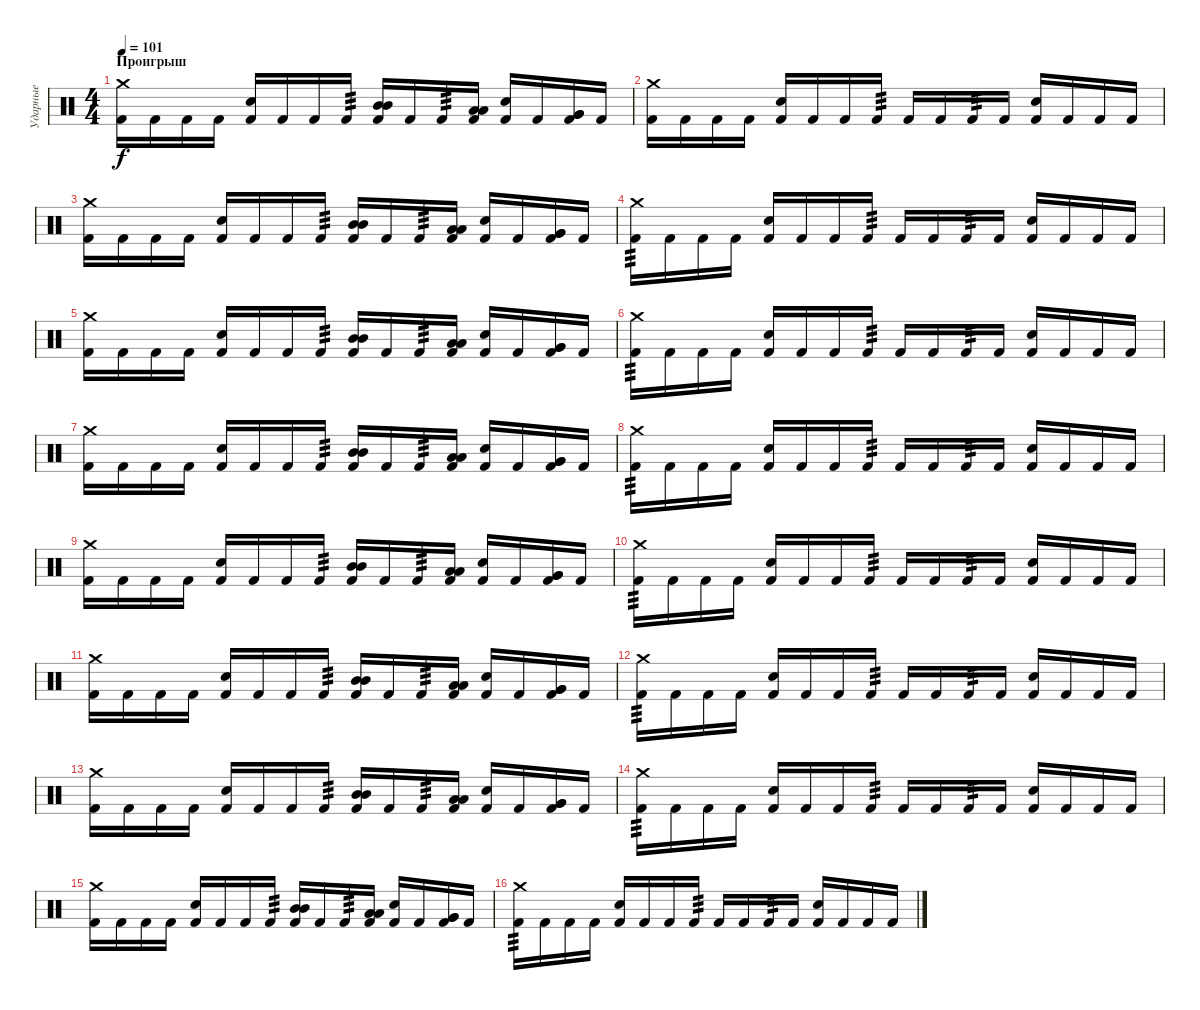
\track ("Ударные" "Ударные") {instrument percussion}
\staff {score}
\articulation defaults
\ts (4 4)
\section ("" "Проигрыш")
\tempo 101
\clef neutral
\ks c
("Crash medium (hit)" "Kick (hit) 2").16{dy f} "Kick (hit) 2".16 "Kick (hit) 2".16 "Kick (hit) 2".16 ("Snare (hit) 2" "Kick (hit) 2").16 "Kick (hit) 2".16 "Kick (hit) 2".16 "Kick (hit) 2".16{tp 3} ("Mid Tom (hit)" "Mid Tom (hit)" "Kick (hit) 2").16 "Kick (hit) 2".16 "Kick (hit) 2".16{tp 3} ("Low Tom (hit)" "Low Tom (hit)" "Kick (hit) 2").16 ("Snare (hit) 2" "Kick (hit) 2").16 "Kick (hit) 2".16 ("Very Low Tom (hit)" "Very Low Tom (hit)" "Kick (hit) 2").16 "Kick (hit) 2".16 |
("Crash medium (hit)" "Kick (hit) 2").16 "Kick (hit) 2".16 "Kick (hit) 2".16 "Kick (hit) 2".16 ("Snare (hit) 2" "Kick (hit) 2").16 "Kick (hit) 2".16 "Kick (hit) 2".16 "Kick (hit) 2".16{tp 3} "Kick (hit) 2".16 "Kick (hit) 2".16 "Kick (hit) 2".16{tp 3} "Kick (hit) 2".16 ("Snare (hit) 2" "Kick (hit) 2").16 "Kick (hit) 2".16 "Kick (hit) 2".16 "Kick (hit) 2".16 |
("Crash medium (hit)" "Kick (hit) 2").16 "Kick (hit) 2".16 "Kick (hit) 2".16 "Kick (hit) 2".16 ("Snare (hit) 2" "Kick (hit) 2").16 "Kick (hit) 2".16 "Kick (hit) 2".16 "Kick (hit) 2".16{tp 3} ("Mid Tom (hit)" "Mid Tom (hit)" "Kick (hit) 2").16 "Kick (hit) 2".16 "Kick (hit) 2".16{tp 3} ("Low Tom (hit)" "Low Tom (hit)" "Kick (hit) 2").16 ("Snare (hit) 2" "Kick (hit) 2").16 "Kick (hit) 2".16 ("Very Low Tom (hit)" "Very Low Tom (hit)" "Kick (hit) 2").16 "Kick (hit) 2".16 |
("Crash medium (hit)" "Kick (hit) 2").16{tp 3} "Kick (hit) 2".16 "Kick (hit) 2".16 "Kick (hit) 2".16 ("Snare (hit) 2" "Kick (hit) 2").16 "Kick (hit) 2".16 "Kick (hit) 2".16 "Kick (hit) 2".16{tp 3} "Kick (hit) 2".16 "Kick (hit) 2".16 "Kick (hit) 2".16{tp 3} "Kick (hit) 2".16 ("Snare (hit) 2" "Kick (hit) 2").16 "Kick (hit) 2".16 "Kick (hit) 2".16 "Kick (hit) 2".16 |
("Crash medium (hit)" "Kick (hit) 2").16 "Kick (hit) 2".16 "Kick (hit) 2".16 "Kick (hit) 2".16 ("Snare (hit) 2" "Kick (hit) 2").16 "Kick (hit) 2".16 "Kick (hit) 2".16 "Kick (hit) 2".16{tp 3} ("Mid Tom (hit)" "Mid Tom (hit)" "Kick (hit) 2").16 "Kick (hit) 2".16 "Kick (hit) 2".16{tp 3} ("Low Tom (hit)" "Low Tom (hit)" "Kick (hit) 2").16 ("Snare (hit) 2" "Kick (hit) 2").16 "Kick (hit) 2".16 ("Very Low Tom (hit)" "Very Low Tom (hit)" "Kick (hit) 2").16 "Kick (hit) 2".16 |
("Crash medium (hit)" "Kick (hit) 2").16{tp 3} "Kick (hit) 2".16 "Kick (hit) 2".16 "Kick (hit) 2".16 ("Snare (hit) 2" "Kick (hit) 2").16 "Kick (hit) 2".16 "Kick (hit) 2".16 "Kick (hit) 2".16{tp 3} "Kick (hit) 2".16 "Kick (hit) 2".16 "Kick (hit) 2".16{tp 3} "Kick (hit) 2".16 ("Snare (hit) 2" "Kick (hit) 2").16 "Kick (hit) 2".16 "Kick (hit) 2".16 "Kick (hit) 2".16 |
("Crash medium (hit)" "Kick (hit) 2").16 "Kick (hit) 2".16 "Kick (hit) 2".16 "Kick (hit) 2".16 ("Snare (hit) 2" "Kick (hit) 2").16 "Kick (hit) 2".16 "Kick (hit) 2".16 "Kick (hit) 2".16{tp 3} ("Mid Tom (hit)" "Mid Tom (hit)" "Kick (hit) 2").16 "Kick (hit) 2".16 "Kick (hit) 2".16{tp 3} ("Low Tom (hit)" "Low Tom (hit)" "Kick (hit) 2").16 ("Snare (hit) 2" "Kick (hit) 2").16 "Kick (hit) 2".16 ("Very Low Tom (hit)" "Very Low Tom (hit)" "Kick (hit) 2").16 "Kick (hit) 2".16 |
("Crash medium (hit)" "Kick (hit) 2").16{tp 3} "Kick (hit) 2".16 "Kick (hit) 2".16 "Kick (hit) 2".16 ("Snare (hit) 2" "Kick (hit) 2").16 "Kick (hit) 2".16 "Kick (hit) 2".16 "Kick (hit) 2".16{tp 3} "Kick (hit) 2".16 "Kick (hit) 2".16 "Kick (hit) 2".16{tp 3} "Kick (hit) 2".16 ("Snare (hit) 2" "Kick (hit) 2").16 "Kick (hit) 2".16 "Kick (hit) 2".16 "Kick (hit) 2".16 |
("Crash medium (hit)" "Kick (hit) 2").16 "Kick (hit) 2".16 "Kick (hit) 2".16 "Kick (hit) 2".16 ("Snare (hit) 2" "Kick (hit) 2").16 "Kick (hit) 2".16 "Kick (hit) 2".16 "Kick (hit) 2".16{tp 3} ("Mid Tom (hit)" "Mid Tom (hit)" "Kick (hit) 2").16 "Kick (hit) 2".16 "Kick (hit) 2".16{tp 3} ("Low Tom (hit)" "Low Tom (hit)" "Kick (hit) 2").16 ("Snare (hit) 2" "Kick (hit) 2").16 "Kick (hit) 2".16 ("Very Low Tom (hit)" "Very Low Tom (hit)" "Kick (hit) 2").16 "Kick (hit) 2".16 |
("Crash medium (hit)" "Kick (hit) 2").16{tp 3} "Kick (hit) 2".16 "Kick (hit) 2".16 "Kick (hit) 2".16 ("Snare (hit) 2" "Kick (hit) 2").16 "Kick (hit) 2".16 "Kick (hit) 2".16 "Kick (hit) 2".16{tp 3} "Kick (hit) 2".16 "Kick (hit) 2".16 "Kick (hit) 2".16{tp 3} "Kick (hit) 2".16 ("Snare (hit) 2" "Kick (hit) 2").16 "Kick (hit) 2".16 "Kick (hit) 2".16 "Kick (hit) 2".16 |
("Crash medium (hit)" "Kick (hit) 2").16 "Kick (hit) 2".16 "Kick (hit) 2".16 "Kick (hit) 2".16 ("Snare (hit) 2" "Kick (hit) 2").16 "Kick (hit) 2".16 "Kick (hit) 2".16 "Kick (hit) 2".16{tp 3} ("Mid Tom (hit)" "Mid Tom (hit)" "Kick (hit) 2").16 "Kick (hit) 2".16 "Kick (hit) 2".16{tp 3} ("Low Tom (hit)" "Low Tom (hit)" "Kick (hit) 2").16 ("Snare (hit) 2" "Kick (hit) 2").16 "Kick (hit) 2".16 ("Very Low Tom (hit)" "Very Low Tom (hit)" "Kick (hit) 2").16 "Kick (hit) 2".16 |
("Crash medium (hit)" "Kick (hit) 2").16{tp 3} "Kick (hit) 2".16 "Kick (hit) 2".16 "Kick (hit) 2".16 ("Snare (hit) 2" "Kick (hit) 2").16 "Kick (hit) 2".16 "Kick (hit) 2".16 "Kick (hit) 2".16{tp 3} "Kick (hit) 2".16 "Kick (hit) 2".16 "Kick (hit) 2".16{tp 3} "Kick (hit) 2".16 ("Snare (hit) 2" "Kick (hit) 2").16 "Kick (hit) 2".16 "Kick (hit) 2".16 "Kick (hit) 2".16 |
("Crash medium (hit)" "Kick (hit) 2").16 "Kick (hit) 2".16 "Kick (hit) 2".16 "Kick (hit) 2".16 ("Snare (hit) 2" "Kick (hit) 2").16 "Kick (hit) 2".16 "Kick (hit) 2".16 "Kick (hit) 2".16{tp 3} ("Mid Tom (hit)" "Mid Tom (hit)" "Kick (hit) 2").16 "Kick (hit) 2".16 "Kick (hit) 2".16{tp 3} ("Low Tom (hit)" "Low Tom (hit)" "Kick (hit) 2").16 ("Snare (hit) 2" "Kick (hit) 2").16 "Kick (hit) 2".16 ("Very Low Tom (hit)" "Very Low Tom (hit)" "Kick (hit) 2").16 "Kick (hit) 2".16 |
("Crash medium (hit)" "Kick (hit) 2").16{tp 3} "Kick (hit) 2".16 "Kick (hit) 2".16 "Kick (hit) 2".16 ("Snare (hit) 2" "Kick (hit) 2").16 "Kick (hit) 2".16 "Kick (hit) 2".16 "Kick (hit) 2".16{tp 3} "Kick (hit) 2".16 "Kick (hit) 2".16 "Kick (hit) 2".16{tp 3} "Kick (hit) 2".16 ("Snare (hit) 2" "Kick (hit) 2").16 "Kick (hit) 2".16 "Kick (hit) 2".16 "Kick (hit) 2".16 |
("Crash medium (hit)" "Kick (hit) 2").16 "Kick (hit) 2".16 "Kick (hit) 2".16 "Kick (hit) 2".16 ("Snare (hit) 2" "Kick (hit) 2").16 "Kick (hit) 2".16 "Kick (hit) 2".16 "Kick (hit) 2".16{tp 3} ("Mid Tom (hit)" "Mid Tom (hit)" "Kick (hit) 2").16 "Kick (hit) 2".16 "Kick (hit) 2".16{tp 3} ("Low Tom (hit)" "Low Tom (hit)" "Kick (hit) 2").16 ("Snare (hit) 2" "Kick (hit) 2").16 "Kick (hit) 2".16 ("Very Low Tom (hit)" "Very Low Tom (hit)" "Kick (hit) 2").16 "Kick (hit) 2".16 |
("Crash medium (hit)" "Kick (hit) 2").16{tp 3} "Kick (hit) 2".16 "Kick (hit) 2".16 "Kick (hit) 2".16 ("Snare (hit) 2" "Kick (hit) 2").16 "Kick (hit) 2".16 "Kick (hit) 2".16 "Kick (hit) 2".16{tp 3} "Kick (hit) 2".16 "Kick (hit) 2".16 "Kick (hit) 2".16{tp 3} "Kick (hit) 2".16 ("Snare (hit) 2" "Kick (hit) 2").16 "Kick (hit) 2".16 "Kick (hit) 2".16 "Kick (hit) 2".16
